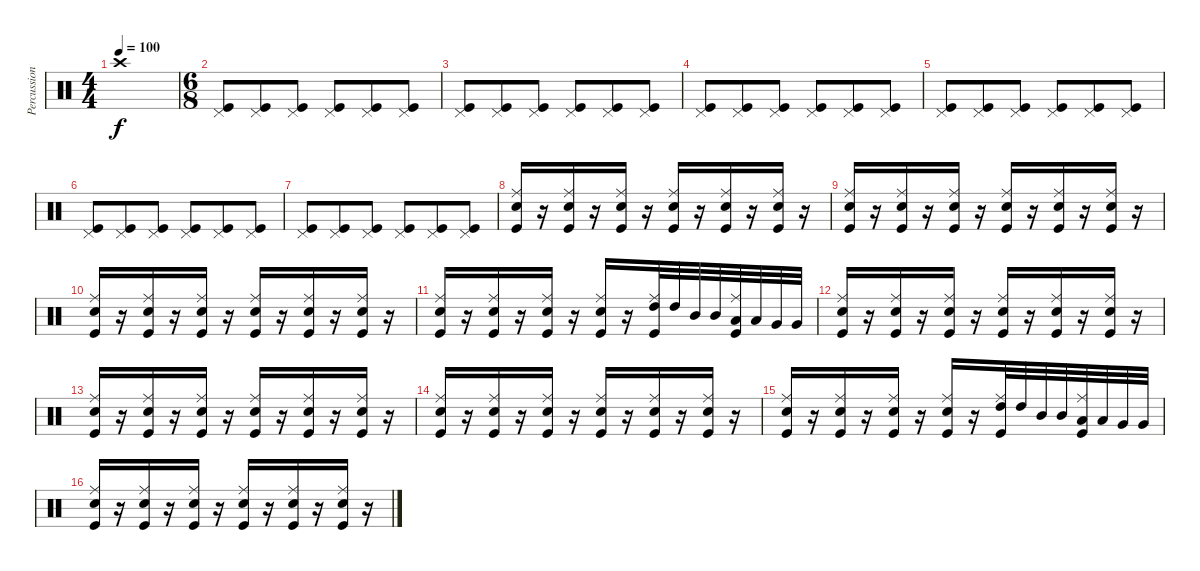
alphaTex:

\track ("Percussions" "Percussion") {instrument percussion}
\staff {score}
\articulation defaults
\ts (4 4)
\tempo 100
\clef neutral
\ks c "Crash high (hit)".1{dy f}
|
\ts (6 8)
("Pedal Hi-Hat (hit)" "Kick (hit)").8 ("Pedal Hi-Hat (hit)" "Kick (hit)").8 ("Pedal Hi-Hat (hit)" "Kick (hit)").8 ("Pedal Hi-Hat (hit)" "Kick (hit)").8 ("Pedal Hi-Hat (hit)" "Kick (hit)").8 ("Pedal Hi-Hat (hit)" "Kick (hit)").8 |
("Pedal Hi-Hat (hit)" "Kick (hit)").8 ("Pedal Hi-Hat (hit)" "Kick (hit)").8 ("Pedal Hi-Hat (hit)" "Kick (hit)").8 ("Pedal Hi-Hat (hit)" "Kick (hit)").8 ("Pedal Hi-Hat (hit)" "Kick (hit)").8 ("Pedal Hi-Hat (hit)" "Kick (hit)").8 |
("Pedal Hi-Hat (hit)" "Kick (hit)").8 ("Pedal Hi-Hat (hit)" "Kick (hit)").8 ("Pedal Hi-Hat (hit)" "Kick (hit)").8 ("Pedal Hi-Hat (hit)" "Kick (hit)").8 ("Pedal Hi-Hat (hit)" "Kick (hit)").8 ("Pedal Hi-Hat (hit)" "Kick (hit)").8 |
("Pedal Hi-Hat (hit)" "Kick (hit)").8 ("Pedal Hi-Hat (hit)" "Kick (hit)").8 ("Pedal Hi-Hat (hit)" "Kick (hit)").8 ("Pedal Hi-Hat (hit)" "Kick (hit)").8 ("Pedal Hi-Hat (hit)" "Kick (hit)").8 ("Pedal Hi-Hat (hit)" "Kick (hit)").8 |
("Pedal Hi-Hat (hit)" "Kick (hit)").8 ("Pedal Hi-Hat (hit)" "Kick (hit)").8 ("Pedal Hi-Hat (hit)" "Kick (hit)").8 ("Pedal Hi-Hat (hit)" "Kick (hit)").8 ("Pedal Hi-Hat (hit)" "Kick (hit)").8 ("Pedal Hi-Hat (hit)" "Kick (hit)").8 |
("Pedal Hi-Hat (hit)" "Kick (hit)").8 ("Pedal Hi-Hat (hit)" "Kick (hit)").8 ("Pedal Hi-Hat (hit)" "Kick (hit)").8 ("Pedal Hi-Hat (hit)" "Kick (hit)").8 ("Pedal Hi-Hat (hit)" "Kick (hit)").8 ("Pedal Hi-Hat (hit)" "Kick (hit)").8 |
("Ride (middle)" "Electric Snare (hit)" "Kick (hit)").16 r.16 ("Ride (middle)" "Electric Snare (hit)" "Kick (hit)").16 r.16 ("Ride (middle)" "Electric Snare (hit)" "Kick (hit)").16 r.16 ("Ride (middle)" "Electric Snare (hit)" "Kick (hit)").16 r.16 ("Ride (middle)" "Electric Snare (hit)" "Kick (hit)").16 r.16 ("Ride (middle)" "Electric Snare (hit)" "Kick (hit)").16 r.16 |
("Ride (middle)" "Electric Snare (hit)" "Kick (hit)").16 r.16 ("Ride (middle)" "Electric Snare (hit)" "Kick (hit)").16 r.16 ("Ride (middle)" "Electric Snare (hit)" "Kick (hit)").16 r.16 ("Ride (middle)" "Electric Snare (hit)" "Kick (hit)").16 r.16 ("Ride (middle)" "Electric Snare (hit)" "Kick (hit)").16 r.16 ("Ride (middle)" "Electric Snare (hit)" "Kick (hit)").16 r.16 |
("Ride (middle)" "Electric Snare (hit)" "Kick (hit)").16 r.16 ("Ride (middle)" "Electric Snare (hit)" "Kick (hit)").16 r.16 ("Ride (middle)" "Electric Snare (hit)" "Kick (hit)").16 r.16 ("Ride (middle)" "Electric Snare (hit)" "Kick (hit)").16 r.16 ("Ride (middle)" "Electric Snare (hit)" "Kick (hit)").16 r.16 ("Ride (middle)" "Electric Snare (hit)" "Kick (hit)").16 r.16 |
("Ride (middle)" "Electric Snare (hit)" "Kick (hit)").16 r.16 ("Ride (middle)" "Electric Snare (hit)" "Kick (hit)").16 r.16 ("Ride (middle)" "Electric Snare (hit)" "Kick (hit)").16 r.16 ("Ride (middle)" "Electric Snare (hit)" "Kick (hit)").16 r.16 ("Ride (middle)" "High Tom (hit)" "Kick (hit)").32 "High Tom (hit)".32 "Mid Tom (hit)".32 "Mid Tom (hit)".32 ("Ride (middle)" "Low Tom (hit)" "Kick (hit)").32 "Low Tom (hit)".32 "Very Low Tom (hit)".32 "Very Low Tom (hit)".32 |
("Ride (middle)" "Electric Snare (hit)" "Kick (hit)").16 r.16 ("Ride (middle)" "Electric Snare (hit)" "Kick (hit)").16 r.16 ("Ride (middle)" "Electric Snare (hit)" "Kick (hit)").16 r.16 ("Ride (middle)" "Electric Snare (hit)" "Kick (hit)").16 r.16 ("Ride (middle)" "Electric Snare (hit)" "Kick (hit)").16 r.16 ("Ride (middle)" "Electric Snare (hit)" "Kick (hit)").16 r.16 |
("Ride (middle)" "Electric Snare (hit)" "Kick (hit)").16 r.16 ("Ride (middle)" "Electric Snare (hit)" "Kick (hit)").16 r.16 ("Ride (middle)" "Electric Snare (hit)" "Kick (hit)").16 r.16 ("Ride (middle)" "Electric Snare (hit)" "Kick (hit)").16 r.16 ("Ride (middle)" "Electric Snare (hit)" "Kick (hit)").16 r.16 ("Ride (middle)" "Electric Snare (hit)" "Kick (hit)").16 r.16 |
("Ride (middle)" "Electric Snare (hit)" "Kick (hit)").16 r.16 ("Ride (middle)" "Electric Snare (hit)" "Kick (hit)").16 r.16 ("Ride (middle)" "Electric Snare (hit)" "Kick (hit)").16 r.16 ("Ride (middle)" "Electric Snare (hit)" "Kick (hit)").16 r.16 ("Ride (middle)" "Electric Snare (hit)" "Kick (hit)").16 r.16 ("Ride (middle)" "Electric Snare (hit)" "Kick (hit)").16 r.16 |
("Ride (middle)" "Electric Snare (hit)" "Kick (hit)").16 r.16 ("Ride (middle)" "Electric Snare (hit)" "Kick (hit)").16 r.16 ("Ride (middle)" "Electric Snare (hit)" "Kick (hit)").16 r.16 ("Ride (middle)" "Electric Snare (hit)" "Kick (hit)").16 r.16 ("Ride (middle)" "High Tom (hit)" "Kick (hit)").32 "High Tom (hit)".32 "Mid Tom (hit)".32 "Mid Tom (hit)".32 ("Ride (middle)" "Low Tom (hit)" "Kick (hit)").32 "Low Tom (hit)".32 "Very Low Tom (hit)".32 "Very Low Tom (hit)".32 |
("Ride (middle)" "Electric Snare (hit)" "Kick (hit)").16 r.16 ("Ride (middle)" "Electric Snare (hit)" "Kick (hit)").16 r.16 ("Ride (middle)" "Electric Snare (hit)" "Kick (hit)").16 r.16 ("Ride (middle)" "Electric Snare (hit)" "Kick (hit)").16 r.16 ("Ride (middle)" "Electric Snare (hit)" "Kick (hit)").16 r.16 ("Ride (middle)" "Electric Snare (hit)" "Kick (hit)").16 r.16
